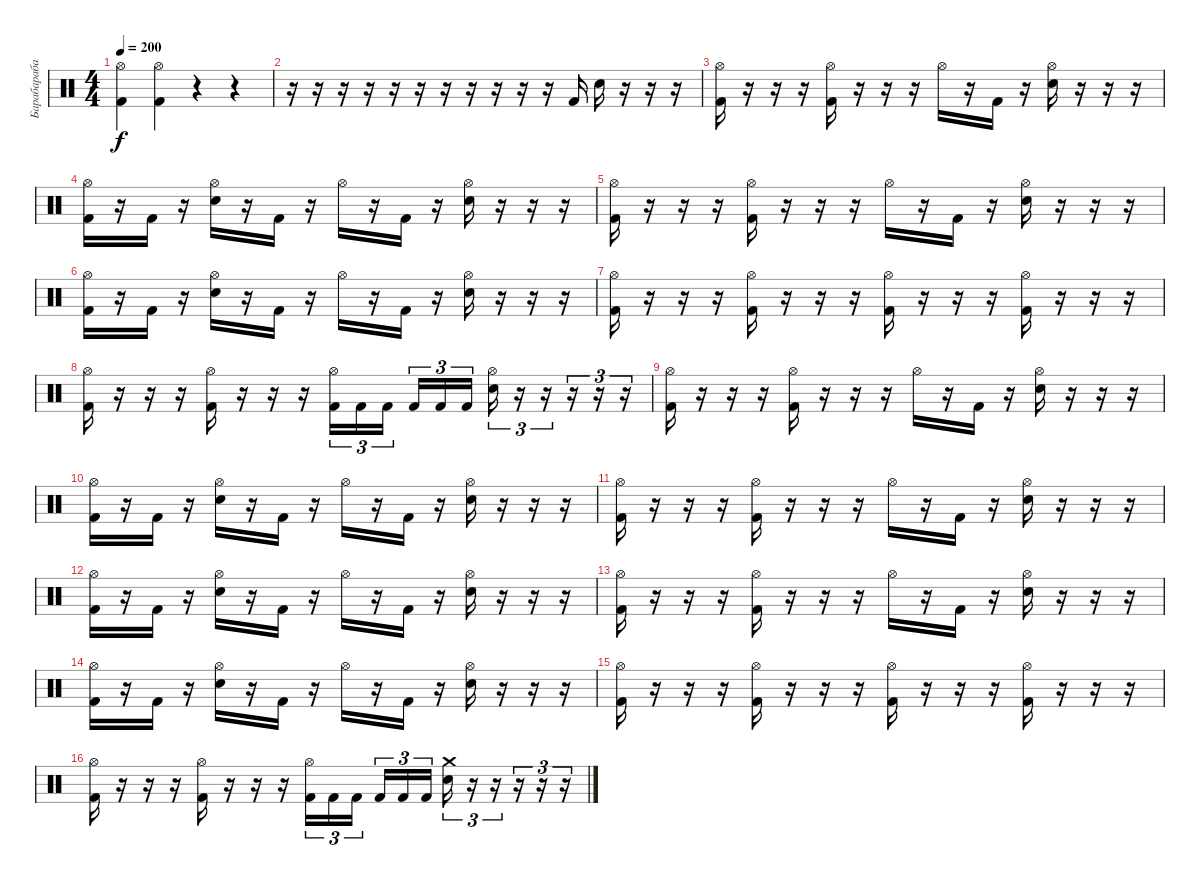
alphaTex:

\track ("Барабарабаны" "Барабараба") {instrument percussion}
\staff {score}
\articulation defaults
\ts (4 4)
\tempo 200
\clef neutral
\ks c
("Hi-Hat (open)" "Kick (hit) 2").4{dy f} ("Hi-Hat (open)" "Kick (hit) 2").4 r.4 r.4 |
r.16 r.16 r.16 r.16 r.16 r.16 r.16 r.16 r.16 r.16 r.16 "Kick (hit) 2".16 "Electric Snare (hit)".16 r.16 r.16 r.16 |
("Hi-Hat (open)" "Kick (hit) 2").16 r.16 r.16 r.16 ("Hi-Hat (open)" "Kick (hit) 2").16 r.16 r.16 r.16 "Hi-Hat (open)".16 r.16 "Kick (hit) 2".16 r.16 ("Hi-Hat (open)" "Electric Snare (hit)").16 r.16 r.16 r.16 |
("Hi-Hat (open)" "Kick (hit) 2").16 r.16 "Kick (hit) 2".16 r.16 ("Hi-Hat (open)" "Electric Snare (hit)").16 r.16 "Kick (hit) 2".16 r.16 "Hi-Hat (open)".16 r.16 "Kick (hit) 2".16 r.16 ("Hi-Hat (open)" "Electric Snare (hit)").16 r.16 r.16 r.16 |
("Hi-Hat (open)" "Kick (hit) 2").16 r.16 r.16 r.16 ("Hi-Hat (open)" "Kick (hit) 2").16 r.16 r.16 r.16 "Hi-Hat (open)".16 r.16 "Kick (hit) 2".16 r.16 ("Hi-Hat (open)" "Electric Snare (hit)").16 r.16 r.16 r.16 |
("Hi-Hat (open)" "Kick (hit) 2").16 r.16 "Kick (hit) 2".16 r.16 ("Hi-Hat (open)" "Electric Snare (hit)").16 r.16 "Kick (hit) 2".16 r.16 "Hi-Hat (open)".16 r.16 "Kick (hit) 2".16 r.16 ("Hi-Hat (open)" "Electric Snare (hit)").16 r.16 r.16 r.16 |
("Kick (hit) 2" "Hi-Hat (open)").16 r.16 r.16 r.16 ("Kick (hit) 2" "Hi-Hat (open)").16 r.16 r.16 r.16 ("Kick (hit) 2" "Hi-Hat (open)").16 r.16 r.16 r.16 ("Kick (hit) 2" "Hi-Hat (open)").16 r.16 r.16 r.16 |
("Kick (hit) 2" "Hi-Hat (open)").16 r.16 r.16 r.16 ("Kick (hit) 2" "Hi-Hat (open)").16 r.16 r.16 r.16 ("Kick (hit) 2" "Hi-Hat (open)").16{tu (3 2)} "Kick (hit) 2".16{tu (3 2)} "Kick (hit) 2".16{tu (3 2) beam splitsecondary} "Kick (hit) 2".16{tu (3 2)} "Kick (hit) 2".16{tu (3 2)} "Kick (hit) 2".16{tu (3 2)} ("Electric Snare (hit)" "Hi-Hat (open)").16{tu (3 2)} r.16{tu (3 2)} r.16{tu (3 2)} r.16{tu (3 2)} r.16{tu (3 2)} r.16{tu (3 2)} |
("Hi-Hat (open)" "Kick (hit) 2").16 r.16 r.16 r.16 ("Hi-Hat (open)" "Kick (hit) 2").16 r.16 r.16 r.16 "Hi-Hat (open)".16 r.16 "Kick (hit) 2".16 r.16 ("Hi-Hat (open)" "Electric Snare (hit)").16 r.16 r.16 r.16 |
("Hi-Hat (open)" "Kick (hit) 2").16 r.16 "Kick (hit) 2".16 r.16 ("Hi-Hat (open)" "Electric Snare (hit)").16 r.16 "Kick (hit) 2".16 r.16 "Hi-Hat (open)".16 r.16 "Kick (hit) 2".16 r.16 ("Hi-Hat (open)" "Electric Snare (hit)").16 r.16 r.16 r.16 |
("Hi-Hat (open)" "Kick (hit) 2").16 r.16 r.16 r.16 ("Hi-Hat (open)" "Kick (hit) 2").16 r.16 r.16 r.16 "Hi-Hat (open)".16 r.16 "Kick (hit) 2".16 r.16 ("Hi-Hat (open)" "Electric Snare (hit)").16 r.16 r.16 r.16 |
("Hi-Hat (open)" "Kick (hit) 2").16 r.16 "Kick (hit) 2".16 r.16 ("Hi-Hat (open)" "Electric Snare (hit)").16 r.16 "Kick (hit) 2".16 r.16 "Hi-Hat (open)".16 r.16 "Kick (hit) 2".16 r.16 ("Hi-Hat (open)" "Electric Snare (hit)").16 r.16 r.16 r.16 |
("Hi-Hat (open)" "Kick (hit) 2").16 r.16 r.16 r.16 ("Hi-Hat (open)" "Kick (hit) 2").16 r.16 r.16 r.16 "Hi-Hat (open)".16 r.16 "Kick (hit) 2".16 r.16 ("Hi-Hat (open)" "Electric Snare (hit)").16 r.16 r.16 r.16 |
("Hi-Hat (open)" "Kick (hit) 2").16 r.16 "Kick (hit) 2".16 r.16 ("Hi-Hat (open)" "Electric Snare (hit)").16 r.16 "Kick (hit) 2".16 r.16 "Hi-Hat (open)".16 r.16 "Kick (hit) 2".16 r.16 ("Hi-Hat (open)" "Electric Snare (hit)").16 r.16 r.16 r.16 |
("Kick (hit) 2" "Hi-Hat (open)").16 r.16 r.16 r.16 ("Kick (hit) 2" "Hi-Hat (open)").16 r.16 r.16 r.16 ("Kick (hit) 2" "Hi-Hat (open)").16 r.16 r.16 r.16 ("Kick (hit) 2" "Hi-Hat (open)").16 r.16 r.16 r.16 |
("Kick (hit) 2" "Hi-Hat (open)").16 r.16 r.16 r.16 ("Kick (hit) 2" "Hi-Hat (open)").16 r.16 r.16 r.16 ("Kick (hit) 2" "Hi-Hat (open)").16{tu (3 2)} "Kick (hit) 2".16{tu (3 2)} "Kick (hit) 2".16{tu (3 2) beam splitsecondary} "Kick (hit) 2".16{tu (3 2)} "Kick (hit) 2".16{tu (3 2)} "Kick (hit) 2".16{tu (3 2)} ("Electric Snare (hit)" "Crash medium (hit)").16{tu (3 2)} r.16{tu (3 2)} r.16{tu (3 2)} r.16{tu (3 2)} r.16{tu (3 2)} r.16{tu (3 2)}
